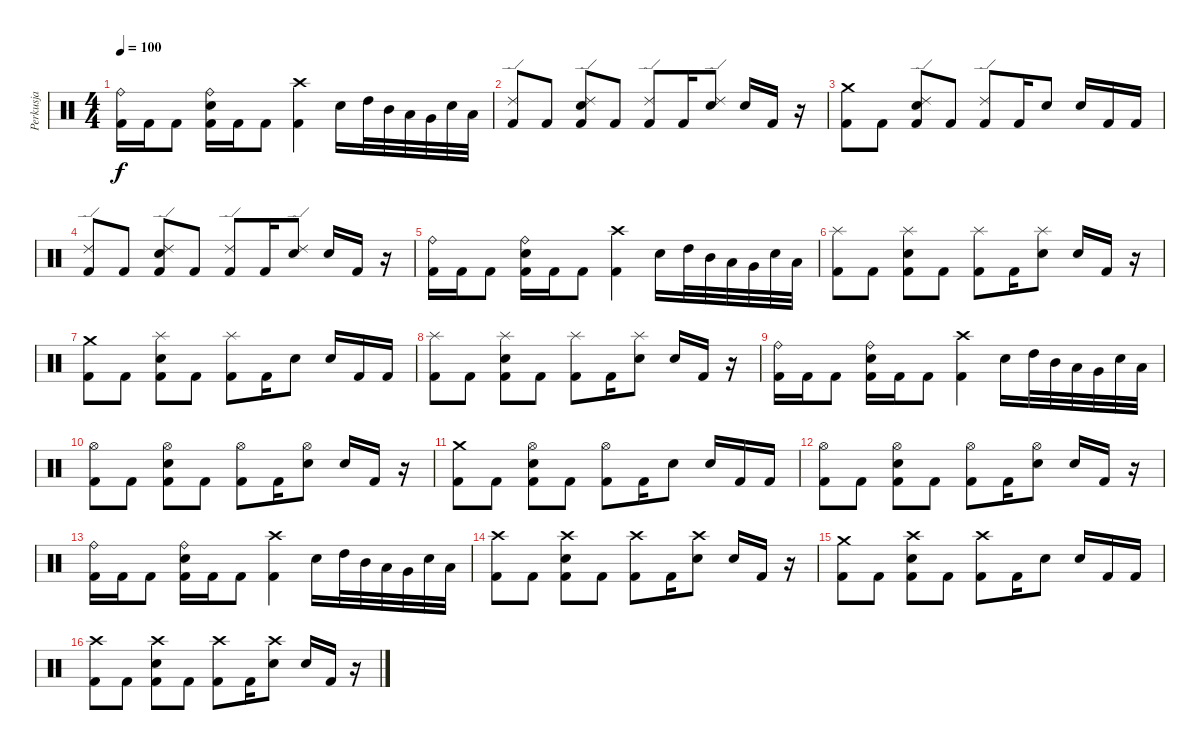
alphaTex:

\track ("Perkusja" "Perkusja") {instrument percussion}
\staff {score}
\articulation defaults
\ts (4 4)
\tempo 100
\clef neutral
\ks c
("Ride (bell)" "Kick (hit) 2").16{dy f} "Kick (hit) 2".16 "Kick (hit) 2".8 ("Ride (bell)" "Electric Snare (hit)" "Kick (hit) 2").16 "Kick (hit) 2".16 "Kick (hit) 2".8 ("Crash high (hit)" "Kick (hit) 2").4 "Electric Snare (hit)".16 "High Tom (hit)".32 "Mid Tom (hit)".32 "Low Tom (hit)".32 "Very Low Tom (hit)".32 "Snare (hit)".32 "Low Floor Tom (hit)".32 |
("Ride (edge) 2" "Kick (hit) 2").8 "Kick (hit) 2".8 ("Ride (edge) 2" "Electric Snare (hit)" "Kick (hit) 2").8 "Kick (hit) 2".8 ("Ride (edge) 2" "Kick (hit) 2").8 "Kick (hit) 2".16 ("Ride (edge) 2" "Electric Snare (hit)").8 "Electric Snare (hit)".16 "Kick (hit) 2".16 r.16 |
("Crash medium (hit)" "Kick (hit) 2").8 "Kick (hit) 2".8 ("Ride (edge) 2" "Electric Snare (hit)" "Kick (hit) 2").8 "Kick (hit) 2".8 ("Ride (edge) 2" "Kick (hit) 2").8 "Kick (hit) 2".16 "Electric Snare (hit)".8 "Electric Snare (hit)".16 "Kick (hit) 2".16 "Kick (hit) 2".16 |
("Ride (edge) 2" "Kick (hit) 2").8 "Kick (hit) 2".8 ("Ride (edge) 2" "Electric Snare (hit)" "Kick (hit) 2").8 "Kick (hit) 2".8 ("Ride (edge) 2" "Kick (hit) 2").8 "Kick (hit) 2".16 ("Ride (edge) 2" "Electric Snare (hit)").8 "Electric Snare (hit)".16 "Kick (hit) 2".16 r.16 |
("Ride (bell)" "Kick (hit) 2").16 "Kick (hit) 2".16 "Kick (hit) 2".8 ("Ride (bell)" "Electric Snare (hit)" "Kick (hit) 2").16 "Kick (hit) 2".16 "Kick (hit) 2".8 ("Crash high (hit)" "Kick (hit) 2").4 "Electric Snare (hit)".16 "High Tom (hit)".32 "Mid Tom (hit)".32 "Low Tom (hit)".32 "Very Low Tom (hit)".32 "Snare (hit)".32 "Low Floor Tom (hit)".32 |
("Splash (hit)" "Kick (hit) 2").8 "Kick (hit) 2".8 ("Splash (hit)" "Electric Snare (hit)" "Kick (hit) 2").8 "Kick (hit) 2".8 ("Splash (hit)" "Kick (hit) 2").8 "Kick (hit) 2".16 ("Splash (hit)" "Electric Snare (hit)").8 "Electric Snare (hit)".16 "Kick (hit) 2".16 r.16 |
("Crash medium (hit)" "Kick (hit) 2").8 "Kick (hit) 2".8 ("Splash (hit)" "Electric Snare (hit)" "Kick (hit) 2").8 "Kick (hit) 2".8 ("Splash (hit)" "Kick (hit) 2").8 "Kick (hit) 2".16 "Electric Snare (hit)".8 "Electric Snare (hit)".16 "Kick (hit) 2".16 "Kick (hit) 2".16 |
("Splash (hit)" "Kick (hit) 2").8 "Kick (hit) 2".8 ("Splash (hit)" "Electric Snare (hit)" "Kick (hit) 2").8 "Kick (hit) 2".8 ("Splash (hit)" "Kick (hit) 2").8 "Kick (hit) 2".16 ("Splash (hit)" "Electric Snare (hit)").8 "Electric Snare (hit)".16 "Kick (hit) 2".16 r.16 |
("Ride (bell)" "Kick (hit) 2").16 "Kick (hit) 2".16 "Kick (hit) 2".8 ("Ride (bell)" "Electric Snare (hit)" "Kick (hit) 2").16 "Kick (hit) 2".16 "Kick (hit) 2".8 ("Crash high (hit)" "Kick (hit) 2").4 "Electric Snare (hit)".16 "High Tom (hit)".32 "Mid Tom (hit)".32 "Low Tom (hit)".32 "Very Low Tom (hit)".32 "Snare (hit)".32 "Low Floor Tom (hit)".32 |
("Hi-Hat (open)" "Kick (hit) 2").8 "Kick (hit) 2".8 ("Hi-Hat (open)" "Electric Snare (hit)" "Kick (hit) 2").8 "Kick (hit) 2".8 ("Hi-Hat (open)" "Kick (hit) 2").8 "Kick (hit) 2".16 ("Hi-Hat (open)" "Electric Snare (hit)").8 "Electric Snare (hit)".16 "Kick (hit) 2".16 r.16 |
("Crash medium (hit)" "Kick (hit) 2").8 "Kick (hit) 2".8 ("Hi-Hat (open)" "Electric Snare (hit)" "Kick (hit) 2").8 "Kick (hit) 2".8 ("Hi-Hat (open)" "Kick (hit) 2").8 "Kick (hit) 2".16 "Electric Snare (hit)".8 "Electric Snare (hit)".16 "Kick (hit) 2".16 "Kick (hit) 2".16 |
("Hi-Hat (open)" "Kick (hit) 2").8 "Kick (hit) 2".8 ("Hi-Hat (open)" "Electric Snare (hit)" "Kick (hit) 2").8 "Kick (hit) 2".8 ("Hi-Hat (open)" "Kick (hit) 2").8 "Kick (hit) 2".16 ("Hi-Hat (open)" "Electric Snare (hit)").8 "Electric Snare (hit)".16 "Kick (hit) 2".16 r.16 |
("Ride (bell)" "Kick (hit) 2").16 "Kick (hit) 2".16 "Kick (hit) 2".8 ("Ride (bell)" "Electric Snare (hit)" "Kick (hit) 2").16 "Kick (hit) 2".16 "Kick (hit) 2".8 ("Crash high (hit)" "Kick (hit) 2").4 "Electric Snare (hit)".16 "High Tom (hit)".32 "Mid Tom (hit)".32 "Low Tom (hit)".32 "Very Low Tom (hit)".32 "Snare (hit)".32 "Low Floor Tom (hit)".32 |
("Crash high (hit)" "Kick (hit) 2").8 "Kick (hit) 2".8 ("Crash high (hit)" "Electric Snare (hit)" "Kick (hit) 2").8 "Kick (hit) 2".8 ("Crash high (hit)" "Kick (hit) 2").8 "Kick (hit) 2".16 ("Crash high (hit)" "Electric Snare (hit)").8 "Electric Snare (hit)".16 "Kick (hit) 2".16 r.16 |
("Crash medium (hit)" "Kick (hit) 2").8 "Kick (hit) 2".8 ("Crash high (hit)" "Electric Snare (hit)" "Kick (hit) 2").8 "Kick (hit) 2".8 ("Crash high (hit)" "Kick (hit) 2").8 "Kick (hit) 2".16 "Electric Snare (hit)".8 "Electric Snare (hit)".16 "Kick (hit) 2".16 "Kick (hit) 2".16 |
("Crash high (hit)" "Kick (hit) 2").8 "Kick (hit) 2".8 ("Crash high (hit)" "Electric Snare (hit)" "Kick (hit) 2").8 "Kick (hit) 2".8 ("Crash high (hit)" "Kick (hit) 2").8 "Kick (hit) 2".16 ("Crash high (hit)" "Electric Snare (hit)").8 "Electric Snare (hit)".16 "Kick (hit) 2".16 r.16
